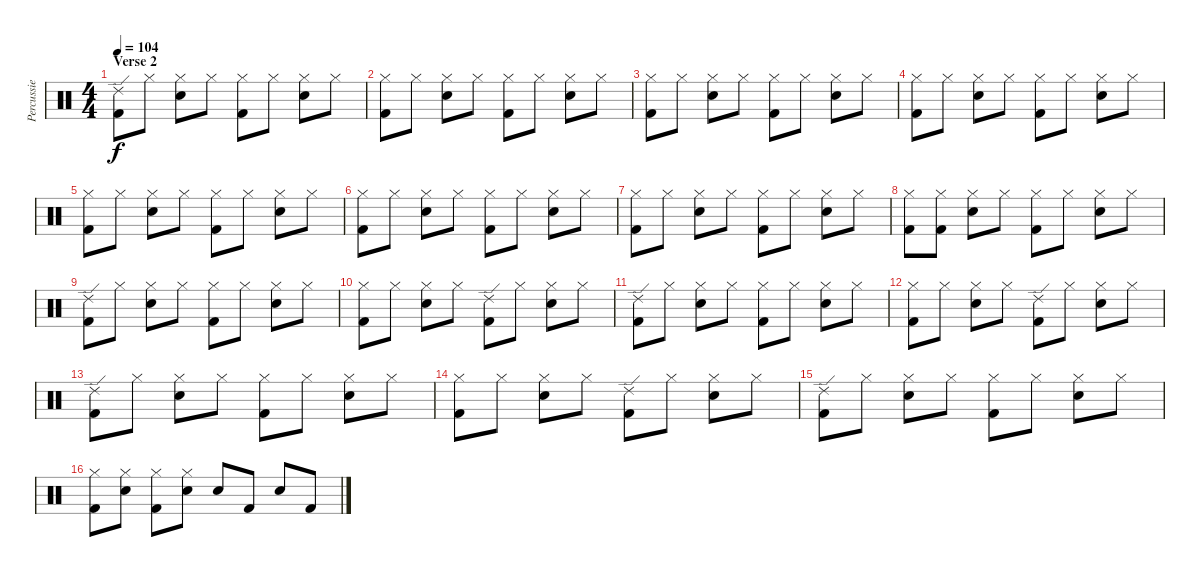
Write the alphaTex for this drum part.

\track ("Percussie" "Percussie") {instrument percussion}
\staff {score}
\articulation defaults
\ts (4 4)
\section ("" "Verse 2")
\tempo 104
\clef neutral
\ks c
("Kick (hit) 2" "Ride (edge) 2").8{dy f} "Hi-Hat (closed)".8 ("Hi-Hat (closed)" "Snare (hit) 2").8 "Hi-Hat (closed)".8 ("Hi-Hat (closed)" "Kick (hit) 2").8 "Hi-Hat (closed)".8 ("Hi-Hat (closed)" "Snare (hit) 2").8 "Hi-Hat (closed)".8 |
("Hi-Hat (closed)" "Kick (hit) 2").8 "Hi-Hat (closed)".8 ("Hi-Hat (closed)" "Snare (hit) 2").8 "Hi-Hat (closed)".8 ("Hi-Hat (closed)" "Kick (hit) 2").8 "Hi-Hat (closed)".8 ("Hi-Hat (closed)" "Snare (hit) 2").8 "Hi-Hat (closed)".8 |
("Hi-Hat (closed)" "Kick (hit) 2").8 "Hi-Hat (closed)".8 ("Hi-Hat (closed)" "Snare (hit) 2").8 "Hi-Hat (closed)".8 ("Hi-Hat (closed)" "Kick (hit) 2").8 "Hi-Hat (closed)".8 ("Hi-Hat (closed)" "Snare (hit) 2").8 "Hi-Hat (closed)".8 |
("Hi-Hat (closed)" "Kick (hit) 2").8 "Hi-Hat (closed)".8 ("Hi-Hat (closed)" "Snare (hit) 2").8 "Hi-Hat (closed)".8 ("Hi-Hat (closed)" "Kick (hit) 2").8 "Hi-Hat (closed)".8 ("Hi-Hat (closed)" "Snare (hit) 2").8 "Hi-Hat (closed)".8 |
("Hi-Hat (closed)" "Kick (hit) 2").8 "Hi-Hat (closed)".8 ("Hi-Hat (closed)" "Snare (hit) 2").8 "Hi-Hat (closed)".8 ("Hi-Hat (closed)" "Kick (hit) 2").8 "Hi-Hat (closed)".8 ("Hi-Hat (closed)" "Snare (hit) 2").8 "Hi-Hat (closed)".8 |
("Hi-Hat (closed)" "Kick (hit) 2").8 "Hi-Hat (closed)".8 ("Hi-Hat (closed)" "Snare (hit) 2").8 "Hi-Hat (closed)".8 ("Hi-Hat (closed)" "Kick (hit) 2").8 "Hi-Hat (closed)".8 ("Hi-Hat (closed)" "Snare (hit) 2").8 "Hi-Hat (closed)".8 |
("Hi-Hat (closed)" "Kick (hit) 2").8 "Hi-Hat (closed)".8 ("Hi-Hat (closed)" "Snare (hit) 2").8 "Hi-Hat (closed)".8 ("Hi-Hat (closed)" "Kick (hit) 2").8 "Hi-Hat (closed)".8 ("Hi-Hat (closed)" "Snare (hit) 2").8 "Hi-Hat (closed)".8 |
("Hi-Hat (closed)" "Kick (hit) 2").8 ("Hi-Hat (closed)" "Kick (hit) 2").8 ("Hi-Hat (closed)" "Snare (hit) 2").8 "Hi-Hat (closed)".8 ("Hi-Hat (closed)" "Kick (hit) 2").8 "Hi-Hat (closed)".8 ("Hi-Hat (closed)" "Snare (hit) 2").8 "Hi-Hat (closed)".8 |
("Kick (hit) 2" "Ride (edge) 2").8 "Hi-Hat (closed)".8 ("Hi-Hat (closed)" "Snare (hit) 2").8 "Hi-Hat (closed)".8 ("Hi-Hat (closed)" "Kick (hit) 2").8 "Hi-Hat (closed)".8 ("Hi-Hat (closed)" "Snare (hit) 2").8 "Hi-Hat (closed)".8 |
("Hi-Hat (closed)" "Kick (hit) 2").8 "Hi-Hat (closed)".8 ("Hi-Hat (closed)" "Snare (hit) 2").8 "Hi-Hat (closed)".8 ("Kick (hit) 2" "Ride (edge) 2").8 "Hi-Hat (closed)".8 ("Hi-Hat (closed)" "Snare (hit) 2").8 "Hi-Hat (closed)".8 |
("Kick (hit) 2" "Ride (edge) 2").8 "Hi-Hat (closed)".8 ("Hi-Hat (closed)" "Snare (hit) 2").8 "Hi-Hat (closed)".8 ("Hi-Hat (closed)" "Kick (hit) 2").8 "Hi-Hat (closed)".8 ("Hi-Hat (closed)" "Snare (hit) 2").8 "Hi-Hat (closed)".8 |
("Hi-Hat (closed)" "Kick (hit) 2").8 "Hi-Hat (closed)".8 ("Hi-Hat (closed)" "Snare (hit) 2").8 "Hi-Hat (closed)".8 ("Kick (hit) 2" "Ride (edge) 2").8 "Hi-Hat (closed)".8 ("Hi-Hat (closed)" "Snare (hit) 2").8 "Hi-Hat (closed)".8 |
("Kick (hit) 2" "Ride (edge) 2").8 "Hi-Hat (closed)".8 ("Hi-Hat (closed)" "Snare (hit) 2").8 "Hi-Hat (closed)".8 ("Hi-Hat (closed)" "Kick (hit) 2").8 "Hi-Hat (closed)".8 ("Hi-Hat (closed)" "Snare (hit) 2").8 "Hi-Hat (closed)".8 |
("Hi-Hat (closed)" "Kick (hit) 2").8 "Hi-Hat (closed)".8 ("Hi-Hat (closed)" "Snare (hit) 2").8 "Hi-Hat (closed)".8 ("Kick (hit) 2" "Ride (edge) 2").8 "Hi-Hat (closed)".8 ("Hi-Hat (closed)" "Snare (hit) 2").8 "Hi-Hat (closed)".8 |
("Kick (hit) 2" "Ride (edge) 2").8 "Hi-Hat (closed)".8 ("Hi-Hat (closed)" "Snare (hit) 2").8 "Hi-Hat (closed)".8 ("Hi-Hat (closed)" "Kick (hit) 2").8 "Hi-Hat (closed)".8 ("Hi-Hat (closed)" "Snare (hit) 2").8 "Hi-Hat (closed)".8 |
("Hi-Hat (closed)" "Kick (hit) 2").8 ("Hi-Hat (closed)" "Snare (hit) 2").8 ("Hi-Hat (closed)" "Kick (hit) 2").8 ("Hi-Hat (closed)" "Snare (hit) 2").8 "Snare (hit) 2".8 "Kick (hit) 2".8 "Snare (hit) 2".8 "Kick (hit) 2".8
